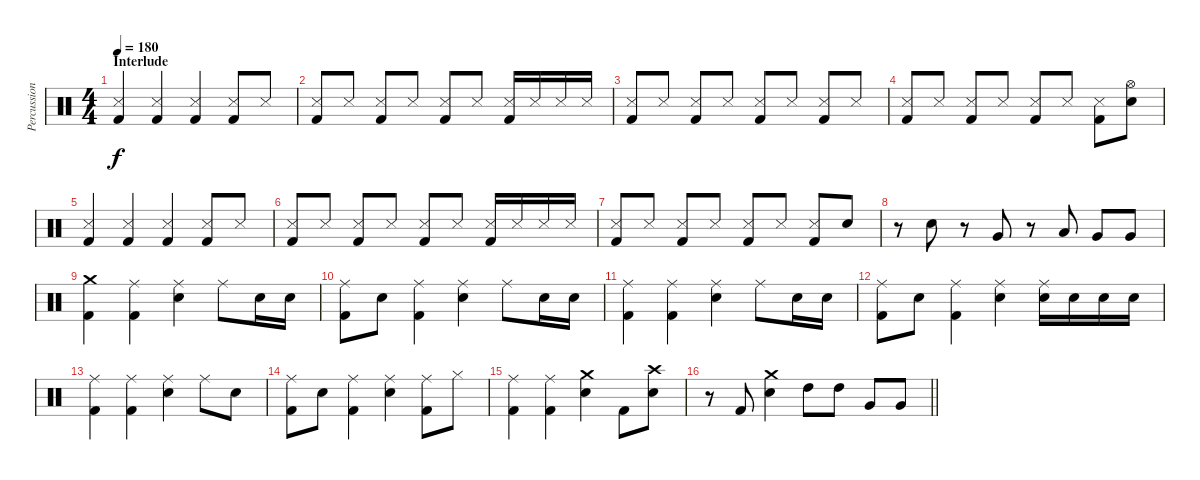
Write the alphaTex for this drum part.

\track ("Percussion" "Percussion") {instrument percussion}
\staff {score}
\articulation defaults
\ts (4 4)
\section ("" "Interlude")
\tempo 180
\clef neutral
\ks c
("Snare (side stick) 3" "Kick (hit) 2").4{dy f} ("Snare (side stick) 3" "Kick (hit) 2").4 ("Snare (side stick) 3" "Kick (hit) 2").4 ("Snare (side stick) 3" "Kick (hit) 2").8 "Snare (side stick) 3".8 |
("Snare (side stick) 3" "Kick (hit) 2").8 "Snare (side stick) 3".8 ("Snare (side stick) 3" "Kick (hit) 2").8 "Snare (side stick) 3".8 ("Snare (side stick) 3" "Kick (hit) 2").8 "Snare (side stick) 3".8 ("Snare (side stick) 3" "Kick (hit) 2").16 "Snare (side stick) 3".16 "Snare (side stick) 3".16 "Snare (side stick) 3".16 |
("Snare (side stick) 3" "Kick (hit) 2").8 "Snare (side stick) 3".8 ("Snare (side stick) 3" "Kick (hit) 2").8 "Snare (side stick) 3".8 ("Snare (side stick) 3" "Kick (hit) 2").8 "Snare (side stick) 3".8 ("Snare (side stick) 3" "Kick (hit) 2").8 "Snare (side stick) 3".8 |
("Snare (side stick) 3" "Kick (hit) 2").8 "Snare (side stick) 3".8 ("Snare (side stick) 3" "Kick (hit) 2").8 "Snare (side stick) 3".8 ("Snare (side stick) 3" "Kick (hit) 2").8 "Snare (side stick) 3".8 ("Snare (side stick) 3" "Kick (hit) 2").8 ("Hi-Hat (open)" "Snare (hit) 2").8 |
("Snare (side stick) 3" "Kick (hit) 2").4 ("Snare (side stick) 3" "Kick (hit) 2").4 ("Snare (side stick) 3" "Kick (hit) 2").4 ("Snare (side stick) 3" "Kick (hit) 2").8 "Snare (side stick) 3".8 |
("Snare (side stick) 3" "Kick (hit) 2").8 "Snare (side stick) 3".8 ("Snare (side stick) 3" "Kick (hit) 2").8 "Snare (side stick) 3".8 ("Snare (side stick) 3" "Kick (hit) 2").8 "Snare (side stick) 3".8 ("Snare (side stick) 3" "Kick (hit) 2").16 "Snare (side stick) 3".16 "Snare (side stick) 3".16 "Snare (side stick) 3".16 |
("Snare (side stick) 3" "Kick (hit) 2").8 "Snare (side stick) 3".8 ("Snare (side stick) 3" "Kick (hit) 2").8 "Snare (side stick) 3".8 ("Snare (side stick) 3" "Kick (hit) 2").8 "Snare (side stick) 3".8 ("Snare (side stick) 3" "Kick (hit) 2").8 "Snare (hit) 2".8 |
r.8 "Snare (hit) 2".8 r.8 "Very Low Tom (hit)".8 r.8 "Low Tom (hit)".8 "Very Low Tom (hit)".8 "Very Low Tom (hit)".8 |
("Crash medium (hit)" "Kick (hit) 2").4 ("Ride (middle)" "Kick (hit) 2").4 ("Ride (middle)" "Snare (hit) 2").4 "Ride (middle)".8 "Snare (hit) 2".16 "Snare (hit) 2".16 |
("Ride (middle)" "Kick (hit) 2").8 "Snare (hit) 2".8 ("Ride (middle)" "Kick (hit) 2").4 ("Ride (middle)" "Snare (hit) 2").4 "Ride (middle)".8 "Snare (hit) 2".16 "Snare (hit) 2".16 |
("Ride (middle)" "Kick (hit) 2").4 ("Ride (middle)" "Kick (hit) 2").4 ("Ride (middle)" "Snare (hit) 2").4 "Ride (middle)".8 "Snare (hit) 2".16 "Snare (hit) 2".16 |
("Ride (middle)" "Kick (hit) 2").8 "Snare (hit) 2".8 ("Ride (middle)" "Kick (hit) 2").4 ("Ride (middle)" "Snare (hit) 2").4 ("Ride (middle)" "Snare (hit) 2").16 "Snare (hit) 2".16 "Snare (hit) 2".16 "Snare (hit) 2".16 |
("Ride (middle)" "Kick (hit) 2").4 ("Ride (middle)" "Kick (hit) 2").4 ("Ride (middle)" "Snare (hit) 2").4 "Ride (middle)".8 "Snare (hit) 2".8 |
("Ride (middle)" "Kick (hit) 2").8 "Snare (hit) 2".8 ("Ride (middle)" "Kick (hit) 2").4 ("Ride (middle)" "Snare (hit) 2").4 ("Ride (middle)" "Kick (hit) 2").8 "Hi-Hat (closed)".8 |
("Ride (middle)" "Kick (hit) 2").4 ("Ride (middle)" "Kick (hit) 2").4 ("Crash medium (hit)" "Snare (hit) 2").4 "Kick (hit) 2".8 ("Crash high (hit)" "Snare (hit) 2").8 |
\barLineRight lightlight
r.8 "Kick (hit) 2".8 ("Crash medium (hit)" "Snare (hit) 2").4 "High Tom (hit)".8 "High Tom (hit)".8 "Very Low Tom (hit)".8 "Very Low Tom (hit)".8
